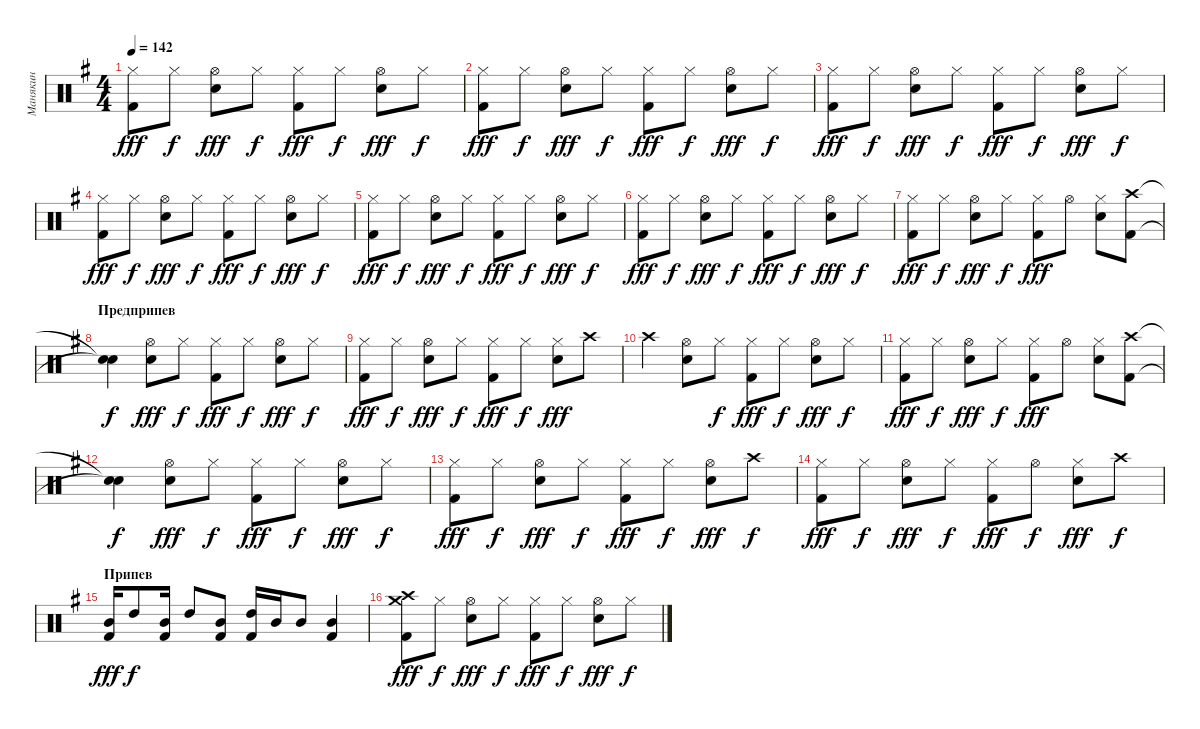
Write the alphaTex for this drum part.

\track ("Манякин" "Манякин") {instrument percussion}
\staff {score}
\articulation defaults
\ts (4 4)
\tempo 142
\clef neutral
\ks eminor
("Hi-Hat (closed)" "Kick (hit) 2").8{dy fff} "Hi-Hat (closed)".8{dy f} ("Hi-Hat (open)" "Electric Snare (hit)").8{dy fff} "Hi-Hat (closed)".8{dy f} ("Hi-Hat (closed)" "Kick (hit) 2").8{dy fff} "Hi-Hat (closed)".8{dy f} ("Hi-Hat (open)" "Electric Snare (hit)").8{dy fff} "Hi-Hat (closed)".8{dy f} |
("Hi-Hat (closed)" "Kick (hit) 2").8{dy fff} "Hi-Hat (closed)".8{dy f} ("Hi-Hat (open)" "Electric Snare (hit)").8{dy fff} "Hi-Hat (closed)".8{dy f} ("Hi-Hat (closed)" "Kick (hit) 2").8{dy fff} "Hi-Hat (closed)".8{dy f} ("Hi-Hat (open)" "Electric Snare (hit)").8{dy fff} "Hi-Hat (closed)".8{dy f} |
("Hi-Hat (closed)" "Kick (hit) 2").8{dy fff} "Hi-Hat (closed)".8{dy f} ("Hi-Hat (open)" "Electric Snare (hit)").8{dy fff} "Hi-Hat (closed)".8{dy f} ("Hi-Hat (closed)" "Kick (hit) 2").8{dy fff} "Hi-Hat (closed)".8{dy f} ("Hi-Hat (open)" "Electric Snare (hit)").8{dy fff} "Hi-Hat (closed)".8{dy f} |
("Hi-Hat (closed)" "Kick (hit) 2").8{dy fff} "Hi-Hat (closed)".8{dy f} ("Hi-Hat (open)" "Electric Snare (hit)").8{dy fff} "Hi-Hat (closed)".8{dy f} ("Hi-Hat (closed)" "Kick (hit) 2").8{dy fff} "Hi-Hat (closed)".8{dy f} ("Hi-Hat (open)" "Electric Snare (hit)").8{dy fff} "Hi-Hat (closed)".8{dy f} |
("Hi-Hat (closed)" "Kick (hit) 2").8{dy fff} "Hi-Hat (closed)".8{dy f} ("Hi-Hat (open)" "Electric Snare (hit)").8{dy fff} "Hi-Hat (closed)".8{dy f} ("Hi-Hat (closed)" "Kick (hit) 2").8{dy fff} "Hi-Hat (closed)".8{dy f} ("Hi-Hat (open)" "Electric Snare (hit)").8{dy fff} "Hi-Hat (closed)".8{dy f} |
("Hi-Hat (closed)" "Kick (hit) 2").8{dy fff} "Hi-Hat (closed)".8{dy f} ("Hi-Hat (open)" "Electric Snare (hit)").8{dy fff} "Hi-Hat (closed)".8{dy f} ("Hi-Hat (closed)" "Kick (hit) 2").8{dy fff} "Hi-Hat (closed)".8{dy f} ("Hi-Hat (open)" "Electric Snare (hit)").8{dy fff} "Hi-Hat (closed)".8{dy f} |
("Hi-Hat (closed)" "Kick (hit) 2").8{dy fff} "Hi-Hat (closed)".8{dy f} ("Hi-Hat (open)" "Electric Snare (hit)").8{dy fff} "Hi-Hat (closed)".8{dy f} ("Hi-Hat (closed)" "Kick (hit) 2").8{dy fff} "Hi-Hat (open)".8 ("Hi-Hat (closed)" "Electric Snare (hit)").8 ("Crash high (hit)" "Kick (hit) 2").8 |
\section ("" "Предприпев")
("Snare (hit)"{t} "Snare (hit)"{t}).4{dy f} ("Hi-Hat (open)" "Electric Snare (hit)").8{dy fff} "Hi-Hat (closed)".8{dy f} ("Hi-Hat (closed)" "Kick (hit) 2").8{dy fff} "Hi-Hat (closed)".8{dy f} ("Hi-Hat (open)" "Electric Snare (hit)").8{dy fff} "Hi-Hat (closed)".8{dy f} |
("Hi-Hat (closed)" "Kick (hit) 2").8{dy fff} "Hi-Hat (closed)".8{dy f} ("Hi-Hat (open)" "Electric Snare (hit)").8{dy fff} "Hi-Hat (closed)".8{dy f} ("Hi-Hat (closed)" "Kick (hit) 2").8{dy fff} "Hi-Hat (closed)".8{dy f} ("Hi-Hat (closed)" "Electric Snare (hit)").8{dy fff} "Crash high (hit)".8 |
"Crash high (hit)".4 ("Hi-Hat (open)" "Electric Snare (hit)").8 "Hi-Hat (closed)".8{dy f} ("Hi-Hat (closed)" "Kick (hit) 2").8{dy fff} "Hi-Hat (closed)".8{dy f} ("Hi-Hat (open)" "Electric Snare (hit)").8{dy fff} "Hi-Hat (closed)".8{dy f} |
("Hi-Hat (closed)" "Kick (hit) 2").8{dy fff} "Hi-Hat (closed)".8{dy f} ("Hi-Hat (open)" "Electric Snare (hit)").8{dy fff} "Hi-Hat (closed)".8{dy f} ("Hi-Hat (closed)" "Kick (hit) 2").8{dy fff} "Hi-Hat (open)".8 ("Hi-Hat (closed)" "Electric Snare (hit)").8 ("Crash high (hit)" "Kick (hit) 2").8 |
("Snare (hit)"{t} "Snare (hit)"{t}).4{dy f} ("Hi-Hat (open)" "Electric Snare (hit)").8{dy fff} "Hi-Hat (closed)".8{dy f} ("Hi-Hat (closed)" "Kick (hit) 2").8{dy fff} "Hi-Hat (closed)".8{dy f} ("Hi-Hat (open)" "Electric Snare (hit)").8{dy fff} "Hi-Hat (closed)".8{dy f} |
("Hi-Hat (closed)" "Kick (hit) 2").8{dy fff} "Hi-Hat (closed)".8{dy f} ("Hi-Hat (open)" "Electric Snare (hit)").8{dy fff} "Hi-Hat (closed)".8{dy f} ("Hi-Hat (closed)" "Kick (hit) 2").8{dy fff} "Hi-Hat (closed)".8{dy f} ("Hi-Hat (open)" "Electric Snare (hit)").8{dy fff} "Crash high (hit)".8{dy f} |
("Hi-Hat (closed)" "Kick (hit) 2").8{dy fff} "Hi-Hat (closed)".8{dy f} ("Hi-Hat (open)" "Electric Snare (hit)").8{dy fff} "Hi-Hat (closed)".8{dy f} ("Hi-Hat (closed)" "Kick (hit) 2").8{dy fff} "Hi-Hat (open)".8{dy f} ("Hi-Hat (closed)" "Electric Snare (hit)").8{dy fff} "Crash high (hit)".8{dy f} |
\section ("" "Припев")
("Mid Tom (hit)" "Kick (hit) 2").16{dy fff} "High Tom (hit)".8{dy f} ("Mid Tom (hit)" "Kick (hit) 2").16 "High Tom (hit)".8 ("Mid Tom (hit)" "Kick (hit) 2").8 ("High Tom (hit)" "Kick (hit) 2").16 "Mid Tom (hit)".16 "Mid Tom (hit)".8 ("Mid Tom (hit)" "Kick (hit) 2").4 |
("Crash high (hit)" "Crash medium (hit)" "Kick (hit) 2").8{dy fff} "Hi-Hat (closed)".8{dy f} ("Hi-Hat (open)" "Electric Snare (hit)").8{dy fff} "Hi-Hat (closed)".8{dy f} ("Hi-Hat (closed)" "Kick (hit) 2").8{dy fff} "Hi-Hat (closed)".8{dy f} ("Hi-Hat (open)" "Electric Snare (hit)").8{dy fff} "Hi-Hat (closed)".8{dy f}
